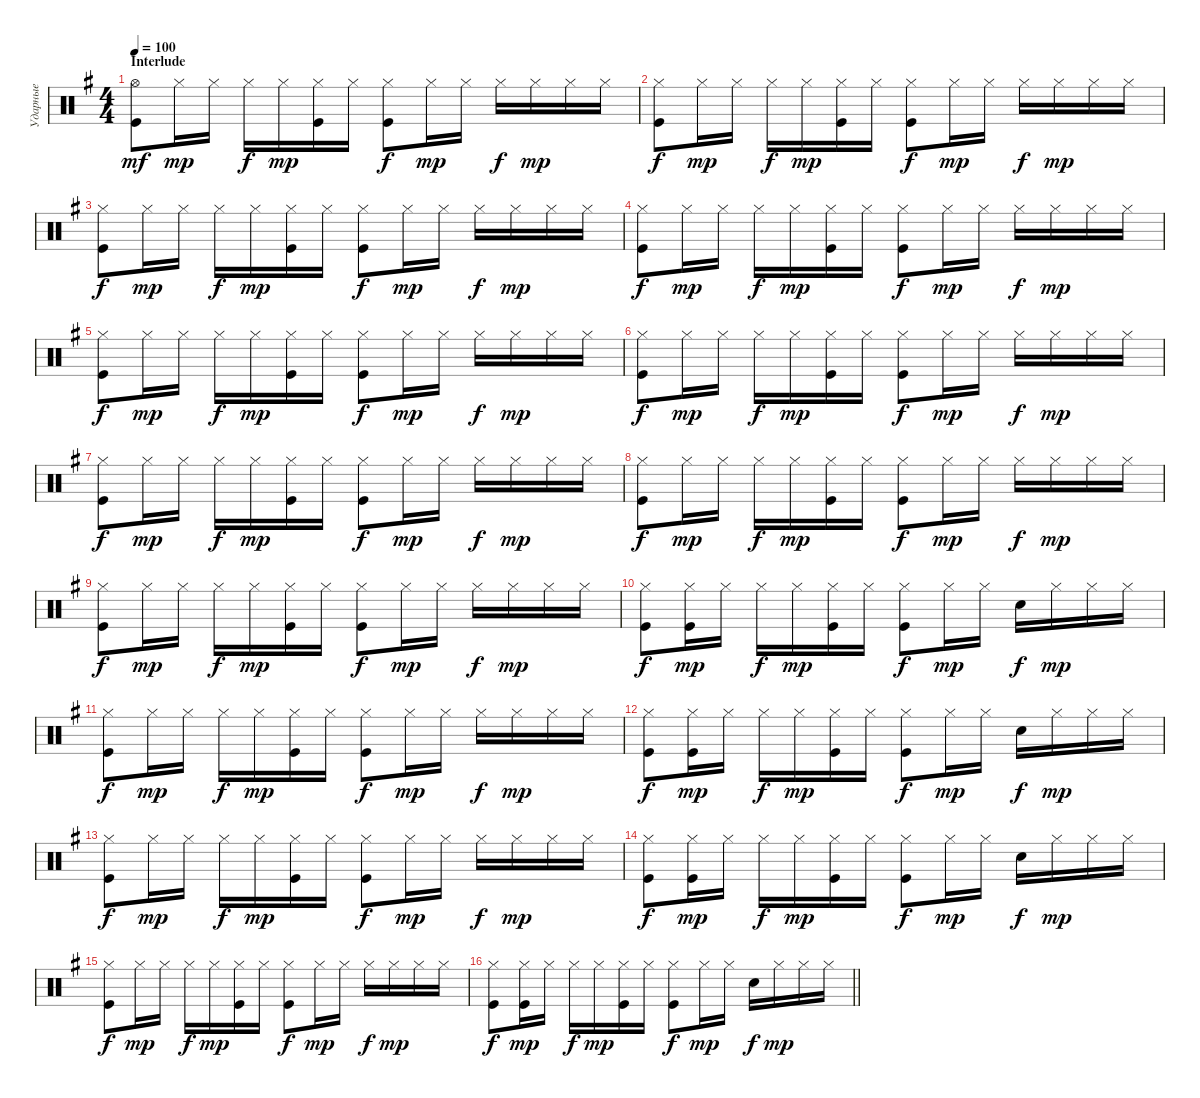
\track ("Ударные" "Ударные") {instrument percussion}
\staff {score}
\articulation defaults
\ts (4 4)
\section ("" "Interlude")
\tempo 100
\clef neutral
\ks eminor
("Hi-Hat (open)" "Kick (hit)").8{dy mf} "Hi-Hat (closed)".16{dy mp} "Hi-Hat (closed)".16 "Hi-Hat (closed)".16{dy f} "Hi-Hat (closed)".16{dy mp} ("Hi-Hat (closed)" "Kick (hit)").16 "Hi-Hat (closed)".16 ("Hi-Hat (closed)" "Kick (hit)").8{dy f} "Hi-Hat (closed)".16{dy mp} "Hi-Hat (closed)".16 "Hi-Hat (closed)".16{dy f} "Hi-Hat (closed)".16{dy mp} "Hi-Hat (closed)".16 "Hi-Hat (closed)".16 |
("Hi-Hat (closed)" "Kick (hit)").8{dy f} "Hi-Hat (closed)".16{dy mp} "Hi-Hat (closed)".16 "Hi-Hat (closed)".16{dy f} "Hi-Hat (closed)".16{dy mp} ("Hi-Hat (closed)" "Kick (hit)").16 "Hi-Hat (closed)".16 ("Hi-Hat (closed)" "Kick (hit)").8{dy f} "Hi-Hat (closed)".16{dy mp} "Hi-Hat (closed)".16 "Hi-Hat (closed)".16{dy f} "Hi-Hat (closed)".16{dy mp} "Hi-Hat (closed)".16 "Hi-Hat (closed)".16 |
("Hi-Hat (closed)" "Kick (hit)").8{dy f} "Hi-Hat (closed)".16{dy mp} "Hi-Hat (closed)".16 "Hi-Hat (closed)".16{dy f} "Hi-Hat (closed)".16{dy mp} ("Hi-Hat (closed)" "Kick (hit)").16 "Hi-Hat (closed)".16 ("Hi-Hat (closed)" "Kick (hit)").8{dy f} "Hi-Hat (closed)".16{dy mp} "Hi-Hat (closed)".16 "Hi-Hat (closed)".16{dy f} "Hi-Hat (closed)".16{dy mp} "Hi-Hat (closed)".16 "Hi-Hat (closed)".16 |
("Hi-Hat (closed)" "Kick (hit)").8{dy f} "Hi-Hat (closed)".16{dy mp} "Hi-Hat (closed)".16 "Hi-Hat (closed)".16{dy f} "Hi-Hat (closed)".16{dy mp} ("Hi-Hat (closed)" "Kick (hit)").16 "Hi-Hat (closed)".16 ("Hi-Hat (closed)" "Kick (hit)").8{dy f} "Hi-Hat (closed)".16{dy mp} "Hi-Hat (closed)".16 "Hi-Hat (closed)".16{dy f} "Hi-Hat (closed)".16{dy mp} "Hi-Hat (closed)".16 "Hi-Hat (closed)".16 |
("Hi-Hat (closed)" "Kick (hit)").8{dy f} "Hi-Hat (closed)".16{dy mp} "Hi-Hat (closed)".16 "Hi-Hat (closed)".16{dy f} "Hi-Hat (closed)".16{dy mp} ("Hi-Hat (closed)" "Kick (hit)").16 "Hi-Hat (closed)".16 ("Hi-Hat (closed)" "Kick (hit)").8{dy f} "Hi-Hat (closed)".16{dy mp} "Hi-Hat (closed)".16 "Hi-Hat (closed)".16{dy f} "Hi-Hat (closed)".16{dy mp} "Hi-Hat (closed)".16 "Hi-Hat (closed)".16 |
("Hi-Hat (closed)" "Kick (hit)").8{dy f} "Hi-Hat (closed)".16{dy mp} "Hi-Hat (closed)".16 "Hi-Hat (closed)".16{dy f} "Hi-Hat (closed)".16{dy mp} ("Hi-Hat (closed)" "Kick (hit)").16 "Hi-Hat (closed)".16 ("Hi-Hat (closed)" "Kick (hit)").8{dy f} "Hi-Hat (closed)".16{dy mp} "Hi-Hat (closed)".16 "Hi-Hat (closed)".16{dy f} "Hi-Hat (closed)".16{dy mp} "Hi-Hat (closed)".16 "Hi-Hat (closed)".16 |
("Hi-Hat (closed)" "Kick (hit)").8{dy f} "Hi-Hat (closed)".16{dy mp} "Hi-Hat (closed)".16 "Hi-Hat (closed)".16{dy f} "Hi-Hat (closed)".16{dy mp} ("Hi-Hat (closed)" "Kick (hit)").16 "Hi-Hat (closed)".16 ("Hi-Hat (closed)" "Kick (hit)").8{dy f} "Hi-Hat (closed)".16{dy mp} "Hi-Hat (closed)".16 "Hi-Hat (closed)".16{dy f} "Hi-Hat (closed)".16{dy mp} "Hi-Hat (closed)".16 "Hi-Hat (closed)".16 |
("Hi-Hat (closed)" "Kick (hit)").8{dy f} "Hi-Hat (closed)".16{dy mp} "Hi-Hat (closed)".16 "Hi-Hat (closed)".16{dy f} "Hi-Hat (closed)".16{dy mp} ("Hi-Hat (closed)" "Kick (hit)").16 "Hi-Hat (closed)".16 ("Hi-Hat (closed)" "Kick (hit)").8{dy f} "Hi-Hat (closed)".16{dy mp} "Hi-Hat (closed)".16 "Hi-Hat (closed)".16{dy f} "Hi-Hat (closed)".16{dy mp} "Hi-Hat (closed)".16 "Hi-Hat (closed)".16 |
("Hi-Hat (closed)" "Kick (hit)").8{dy f} "Hi-Hat (closed)".16{dy mp} "Hi-Hat (closed)".16 "Hi-Hat (closed)".16{dy f} "Hi-Hat (closed)".16{dy mp} ("Hi-Hat (closed)" "Kick (hit)").16 "Hi-Hat (closed)".16 ("Hi-Hat (closed)" "Kick (hit)").8{dy f} "Hi-Hat (closed)".16{dy mp} "Hi-Hat (closed)".16 "Hi-Hat (closed)".16{dy f} "Hi-Hat (closed)".16{dy mp} "Hi-Hat (closed)".16 "Hi-Hat (closed)".16 |
("Hi-Hat (closed)" "Kick (hit)").8{dy f} ("Hi-Hat (closed)" "Kick (hit)").16{dy mp} "Hi-Hat (closed)".16 "Hi-Hat (closed)".16{dy f} "Hi-Hat (closed)".16{dy mp} ("Hi-Hat (closed)" "Kick (hit)").16 "Hi-Hat (closed)".16 ("Hi-Hat (closed)" "Kick (hit)").8{dy f} "Hi-Hat (closed)".16{dy mp} "Hi-Hat (closed)".16 "Snare (hit) 2".16{dy f} "Hi-Hat (closed)".16{dy mp} "Hi-Hat (closed)".16 "Hi-Hat (closed)".16 |
("Hi-Hat (closed)" "Kick (hit)").8{dy f} "Hi-Hat (closed)".16{dy mp} "Hi-Hat (closed)".16 "Hi-Hat (closed)".16{dy f} "Hi-Hat (closed)".16{dy mp} ("Hi-Hat (closed)" "Kick (hit)").16 "Hi-Hat (closed)".16 ("Hi-Hat (closed)" "Kick (hit)").8{dy f} "Hi-Hat (closed)".16{dy mp} "Hi-Hat (closed)".16 "Hi-Hat (closed)".16{dy f} "Hi-Hat (closed)".16{dy mp} "Hi-Hat (closed)".16 "Hi-Hat (closed)".16 |
("Hi-Hat (closed)" "Kick (hit)").8{dy f} ("Hi-Hat (closed)" "Kick (hit)").16{dy mp} "Hi-Hat (closed)".16 "Hi-Hat (closed)".16{dy f} "Hi-Hat (closed)".16{dy mp} ("Hi-Hat (closed)" "Kick (hit)").16 "Hi-Hat (closed)".16 ("Hi-Hat (closed)" "Kick (hit)").8{dy f} "Hi-Hat (closed)".16{dy mp} "Hi-Hat (closed)".16 "Snare (hit) 2".16{dy f} "Hi-Hat (closed)".16{dy mp} "Hi-Hat (closed)".16 "Hi-Hat (closed)".16 |
("Hi-Hat (closed)" "Kick (hit)").8{dy f} "Hi-Hat (closed)".16{dy mp} "Hi-Hat (closed)".16 "Hi-Hat (closed)".16{dy f} "Hi-Hat (closed)".16{dy mp} ("Hi-Hat (closed)" "Kick (hit)").16 "Hi-Hat (closed)".16 ("Hi-Hat (closed)" "Kick (hit)").8{dy f} "Hi-Hat (closed)".16{dy mp} "Hi-Hat (closed)".16 "Hi-Hat (closed)".16{dy f} "Hi-Hat (closed)".16{dy mp} "Hi-Hat (closed)".16 "Hi-Hat (closed)".16 |
("Hi-Hat (closed)" "Kick (hit)").8{dy f} ("Hi-Hat (closed)" "Kick (hit)").16{dy mp} "Hi-Hat (closed)".16 "Hi-Hat (closed)".16{dy f} "Hi-Hat (closed)".16{dy mp} ("Hi-Hat (closed)" "Kick (hit)").16 "Hi-Hat (closed)".16 ("Hi-Hat (closed)" "Kick (hit)").8{dy f} "Hi-Hat (closed)".16{dy mp} "Hi-Hat (closed)".16 "Snare (hit) 2".16{dy f} "Hi-Hat (closed)".16{dy mp} "Hi-Hat (closed)".16 "Hi-Hat (closed)".16 |
("Hi-Hat (closed)" "Kick (hit)").8{dy f} "Hi-Hat (closed)".16{dy mp} "Hi-Hat (closed)".16 "Hi-Hat (closed)".16{dy f} "Hi-Hat (closed)".16{dy mp} ("Hi-Hat (closed)" "Kick (hit)").16 "Hi-Hat (closed)".16 ("Hi-Hat (closed)" "Kick (hit)").8{dy f} "Hi-Hat (closed)".16{dy mp} "Hi-Hat (closed)".16 "Hi-Hat (closed)".16{dy f} "Hi-Hat (closed)".16{dy mp} "Hi-Hat (closed)".16 "Hi-Hat (closed)".16 |
\barLineRight lightlight
("Hi-Hat (closed)" "Kick (hit)").8{dy f} ("Hi-Hat (closed)" "Kick (hit)").16{dy mp} "Hi-Hat (closed)".16 "Hi-Hat (closed)".16{dy f} "Hi-Hat (closed)".16{dy mp} ("Hi-Hat (closed)" "Kick (hit)").16 "Hi-Hat (closed)".16 ("Hi-Hat (closed)" "Kick (hit)").8{dy f} "Hi-Hat (closed)".16{dy mp} "Hi-Hat (closed)".16 "Snare (hit) 2".16{dy f} "Hi-Hat (closed)".16{dy mp} "Hi-Hat (closed)".16 "Hi-Hat (closed)".16
